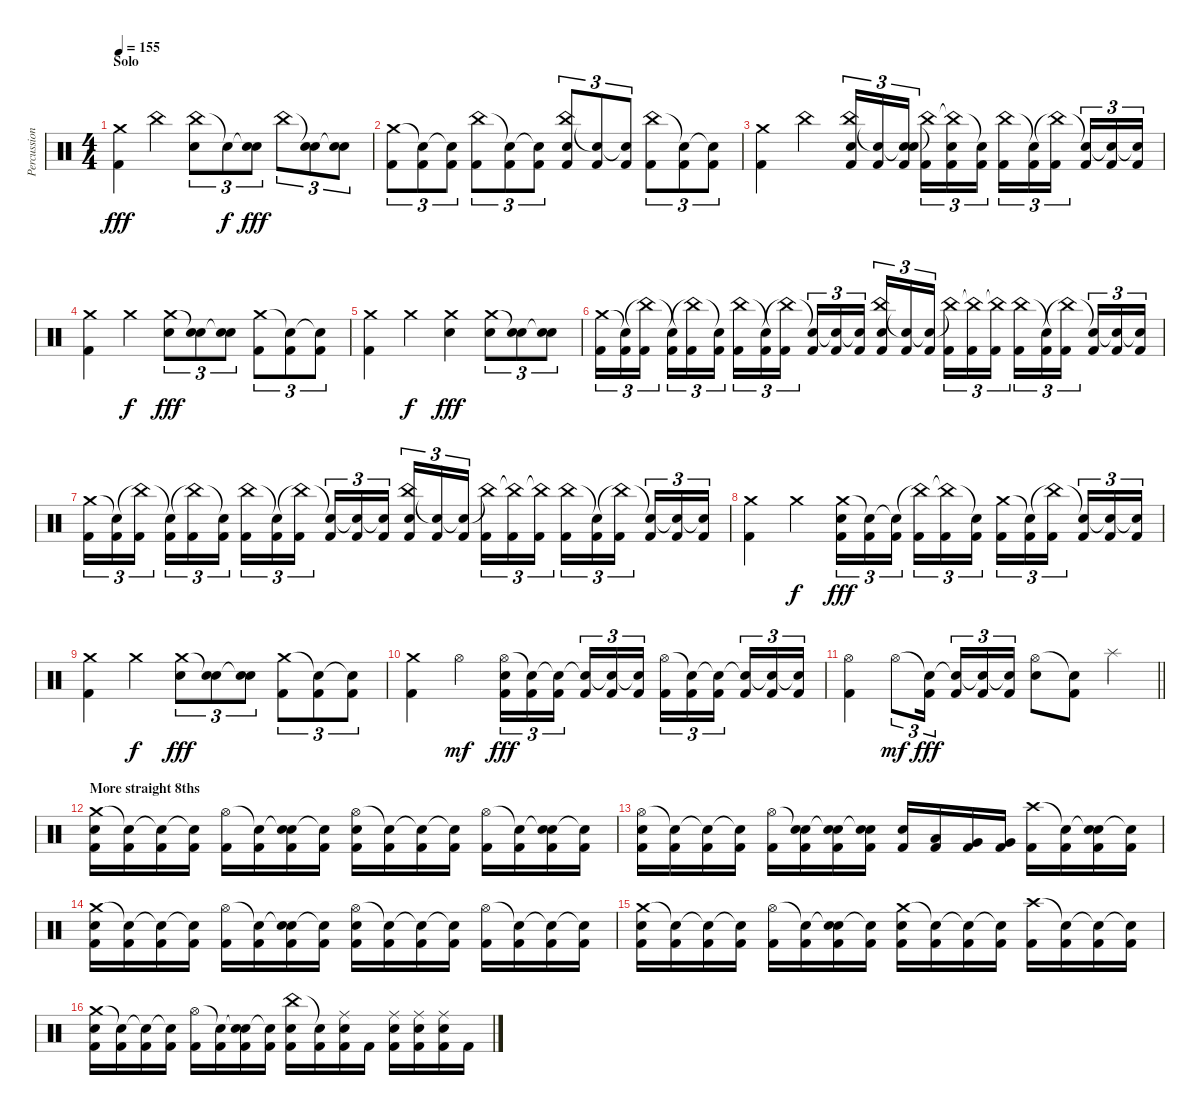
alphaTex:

\track ("Percussion" "Percussion") {instrument percussion}
\staff {score}
\articulation defaults
\ts (4 4)
\section ("" "Solo")
\tempo 155
\clef neutral
\ks c
("Crash medium (hit)" "Kick (hit) 2").4{dy fff} "China (hit)".4 ("China (hit)" "Electric Snare (hit)").8{tu (3 2)} "Snare (hit)"{t}.8{tu (3 2) dy f} ("Snare (hit)"{t} "Electric Snare (hit)").8{tu (3 2) dy fff} "China (hit)".8{tu (3 2)} ("Snare (hit)"{t} "Electric Snare (hit)").8{tu (3 2)} ("Snare (hit)"{t} "Electric Snare (hit)").8{tu (3 2)} |
("Crash medium (hit)" "Kick (hit) 2").8{tu (3 2)} ("Snare (hit)"{t} "Kick (hit) 2").8{tu (3 2)} ("Snare (hit)"{t} "Kick (hit) 2").8{tu (3 2)} ("China (hit)" "Kick (hit) 2").8{tu (3 2)} ("Snare (hit)"{t} "Kick (hit) 2").8{tu (3 2)} ("Snare (hit)"{t} "Kick (hit) 2").8{tu (3 2)} ("China (hit)" "Electric Snare (hit)" "Kick (hit) 2").8{tu (3 2)} ("Snare (hit)"{t} "Kick (hit) 2").8{tu (3 2)} ("Snare (hit)"{t} "Kick (hit) 2").8{tu (3 2)} ("China (hit)" "Kick (hit) 2").8{tu (3 2)} ("Snare (hit)"{t} "Kick (hit) 2").8{tu (3 2)} ("Snare (hit)"{t} "Kick (hit) 2").8{tu (3 2)} |
("Crash medium (hit)" "Kick (hit) 2").4 "China (hit)".4 ("China (hit)" "Electric Snare (hit)" "Kick (hit) 2").16{tu (3 2)} ("Snare (hit)"{t} "Kick (hit) 2").16{tu (3 2)} ("Snare (hit)"{t} "Electric Snare (hit)" "Kick (hit) 2").16{tu (3 2) beam splitsecondary} ("China (hit)"{t} "Kick (hit) 2").16{tu (3 2)} ("China (hit)"{t} "Electric Snare (hit)" "Kick (hit) 2").16{tu (3 2)} ("Snare (hit)"{t} "Kick (hit) 2").16{tu (3 2)} ("China (hit)" "Kick (hit) 2").16{tu (3 2)} ("Snare (hit)"{t} "Kick (hit) 2").16{tu (3 2)} ("China (hit)"{t} "Kick (hit) 2").16{tu (3 2) beam splitsecondary} ("Snare (hit)"{t} "Kick (hit) 2").16{tu (3 2)} ("Snare (hit)"{t} "Kick (hit) 2").16{tu (3 2)} ("Snare (hit)"{t} "Kick (hit) 2").16{tu (3 2)} |
("Crash medium (hit)" "Kick (hit) 2").4 "Crash medium (hit)".4{dy f} ("Crash medium (hit)" "Electric Snare (hit)").8{tu (3 2) dy fff} ("Snare (hit)"{t} "Electric Snare (hit)").8{tu (3 2)} ("Snare (hit)"{t} "Electric Snare (hit)").8{tu (3 2)} ("Crash medium (hit)" "Kick (hit) 2").8{tu (3 2)} ("Snare (hit)"{t} "Kick (hit) 2").8{tu (3 2)} ("Snare (hit)"{t} "Kick (hit) 2").8{tu (3 2)} |
("Crash medium (hit)" "Kick (hit) 2").4 "Crash medium (hit)".4{dy f} ("Crash medium (hit)" "Electric Snare (hit)").4{dy fff} ("Crash medium (hit)" "Electric Snare (hit)").8{tu (3 2)} ("Snare (hit)"{t} "Electric Snare (hit)").8{tu (3 2)} ("Snare (hit)"{t} "Electric Snare (hit)").8{tu (3 2)} |
("Crash medium (hit)" "Kick (hit) 2").16{tu (3 2)} ("Snare (hit)"{t} "Kick (hit) 2").16{tu (3 2)} ("China (hit)"{t} "Kick (hit) 2").16{tu (3 2) beam splitsecondary} ("Snare (hit)"{t} "Kick (hit) 2").16{tu (3 2)} ("China (hit)"{t} "Kick (hit) 2").16{tu (3 2)} ("Snare (hit)"{t} "Kick (hit) 2").16{tu (3 2)} ("China (hit)" "Kick (hit) 2").16{tu (3 2)} ("Snare (hit)"{t} "Kick (hit) 2").16{tu (3 2)} ("China (hit)"{t} "Kick (hit) 2").16{tu (3 2) beam splitsecondary} ("Snare (hit)"{t} "Kick (hit) 2").16{tu (3 2)} ("Snare (hit)"{t} "Kick (hit) 2").16{tu (3 2)} ("Snare (hit)"{t} "Kick (hit) 2").16{tu (3 2)} ("China (hit)" "Electric Snare (hit)" "Kick (hit) 2").16{tu (3 2)} ("Snare (hit)"{t} "Kick (hit) 2").16{tu (3 2)} ("Snare (hit)"{t} "Kick (hit) 2").16{tu (3 2) beam splitsecondary} ("China (hit)"{t} "Kick (hit) 2").16{tu (3 2)} ("China (hit)"{t} "Kick (hit) 2").16{tu (3 2)} ("China (hit)"{t} "Kick (hit) 2").16{tu (3 2)} ("China (hit)" "Kick (hit) 2").16{tu (3 2)} ("Snare (hit)"{t} "Kick (hit) 2").16{tu (3 2)} ("China (hit)"{t} "Kick (hit) 2").16{tu (3 2) beam splitsecondary} ("Snare (hit)"{t} "Kick (hit) 2").16{tu (3 2)} ("Snare (hit)"{t} "Kick (hit) 2").16{tu (3 2)} ("Snare (hit)"{t} "Kick (hit) 2").16{tu (3 2)} |
("Crash medium (hit)" "Kick (hit) 2").16{tu (3 2)} ("Snare (hit)"{t} "Kick (hit) 2").16{tu (3 2)} ("China (hit)"{t} "Kick (hit) 2").16{tu (3 2) beam splitsecondary} ("Snare (hit)"{t} "Kick (hit) 2").16{tu (3 2)} ("China (hit)"{t} "Kick (hit) 2").16{tu (3 2)} ("Snare (hit)"{t} "Kick (hit) 2").16{tu (3 2)} ("China (hit)" "Kick (hit) 2").16{tu (3 2)} ("Snare (hit)"{t} "Kick (hit) 2").16{tu (3 2)} ("China (hit)"{t} "Kick (hit) 2").16{tu (3 2) beam splitsecondary} ("Snare (hit)"{t} "Kick (hit) 2").16{tu (3 2)} ("Snare (hit)"{t} "Kick (hit) 2").16{tu (3 2)} ("Snare (hit)"{t} "Kick (hit) 2").16{tu (3 2)} ("China (hit)" "Electric Snare (hit)" "Kick (hit) 2").16{tu (3 2)} ("Snare (hit)"{t} "Kick (hit) 2").16{tu (3 2)} ("Snare (hit)"{t} "Kick (hit) 2").16{tu (3 2) beam splitsecondary} ("China (hit)"{t} "Kick (hit) 2").16{tu (3 2)} ("China (hit)"{t} "Kick (hit) 2").16{tu (3 2)} ("China (hit)"{t} "Kick (hit) 2").16{tu (3 2)} ("China (hit)" "Kick (hit) 2").16{tu (3 2)} ("Snare (hit)"{t} "Kick (hit) 2").16{tu (3 2)} ("China (hit)"{t} "Kick (hit) 2").16{tu (3 2) beam splitsecondary} ("Snare (hit)"{t} "Kick (hit) 2").16{tu (3 2)} ("Snare (hit)"{t} "Kick (hit) 2").16{tu (3 2)} ("Snare (hit)"{t} "Kick (hit) 2").16{tu (3 2)} |
("Crash medium (hit)" "Kick (hit) 2").4 "Crash medium (hit)".4{dy f} ("Crash medium (hit)" "Electric Snare (hit)" "Kick (hit) 2").16{tu (3 2) dy fff} ("Snare (hit)"{t} "Kick (hit) 2").16{tu (3 2)} ("Snare (hit)"{t} "Kick (hit) 2").16{tu (3 2) beam splitsecondary} ("China (hit)"{t} "Kick (hit) 2").16{tu (3 2)} ("China (hit)"{t} "Kick (hit) 2").16{tu (3 2)} ("Snare (hit)"{t} "Kick (hit) 2").16{tu (3 2)} ("Crash medium (hit)" "Kick (hit) 2").16{tu (3 2)} ("Snare (hit)"{t} "Kick (hit) 2").16{tu (3 2)} ("China (hit)"{t} "Kick (hit) 2").16{tu (3 2) beam splitsecondary} ("Snare (hit)"{t} "Kick (hit) 2").16{tu (3 2)} ("Snare (hit)"{t} "Kick (hit) 2").16{tu (3 2)} ("Snare (hit)"{t} "Kick (hit) 2").16{tu (3 2)} |
("Crash medium (hit)" "Kick (hit) 2").4 "Crash medium (hit)".4{dy f} ("Crash medium (hit)" "Electric Snare (hit)").8{tu (3 2) dy fff} ("Snare (hit)"{t} "Electric Snare (hit)").8{tu (3 2)} ("Snare (hit)"{t} "Electric Snare (hit)").8{tu (3 2)} ("Crash medium (hit)" "Kick (hit) 2").8{tu (3 2)} ("Snare (hit)"{t} "Kick (hit) 2").8{tu (3 2)} ("Snare (hit)"{t} "Kick (hit) 2").8{tu (3 2)} |
("Crash medium (hit)" "Kick (hit) 2").4 "Hi-Hat (open)".4{dy mf} ("Hi-Hat (open)" "Electric Snare (hit)" "Kick (hit) 2").16{tu (3 2) dy fff} ("Snare (hit)"{t} "Kick (hit) 2").16{tu (3 2)} ("Snare (hit)"{t} "Kick (hit) 2").16{tu (3 2) beam splitsecondary} ("Snare (hit)"{t} "Kick (hit) 2").16{tu (3 2)} ("Snare (hit)"{t} "Kick (hit) 2").16{tu (3 2)} ("Snare (hit)"{t} "Kick (hit) 2").16{tu (3 2)} ("Hi-Hat (open)" "Kick (hit) 2").16{tu (3 2)} ("Snare (hit)"{t} "Kick (hit) 2").16{tu (3 2)} ("Snare (hit)"{t} "Kick (hit) 2").16{tu (3 2) beam splitsecondary} ("Snare (hit)"{t} "Kick (hit) 2").16{tu (3 2)} ("Snare (hit)"{t} "Kick (hit) 2").16{tu (3 2)} ("Snare (hit)"{t} "Kick (hit) 2").16{tu (3 2)} |
\barLineRight lightlight
("Hi-Hat (open)" "Kick (hit) 2").4 "Hi-Hat (open)".8{tu (3 2) dy mf} ("Snare (hit)"{t} "Kick (hit) 2").16{tu (3 2) dy fff beam splitsecondary} ("Snare (hit)"{t} "Kick (hit) 2").16{tu (3 2)} ("Snare (hit)"{t} "Kick (hit) 2").16{tu (3 2)} ("Snare (hit)"{t} "Kick (hit) 2").16{tu (3 2)} ("Hi-Hat (open)" "Electric Snare (hit)").8 ("Snare (hit)"{t} "Kick (hit) 2").8 "Splash (hit)".4 |
\section ("" "More straight 8ths")
("Crash medium (hit)" "Electric Snare (hit)" "Kick (hit) 2").16 ("Snare (hit)"{t} "Kick (hit) 2").16 ("Snare (hit)"{t} "Kick (hit) 2").16 ("Snare (hit)"{t} "Kick (hit) 2").16 ("Hi-Hat (open)" "Kick (hit) 2").16 ("Snare (hit)"{t} "Kick (hit) 2").16 ("Snare (hit)"{t} "Electric Snare (hit)" "Kick (hit) 2").16 ("Snare (hit)"{t} "Kick (hit) 2").16 ("Hi-Hat (open)" "Electric Snare (hit)" "Kick (hit) 2").16 ("Snare (hit)"{t} "Kick (hit) 2").16 ("Snare (hit)"{t} "Kick (hit) 2").16 ("Snare (hit)"{t} "Kick (hit) 2").16 ("Hi-Hat (open)" "Kick (hit) 2").16 ("Snare (hit)"{t} "Kick (hit) 2").16 ("Snare (hit)"{t} "Electric Snare (hit)" "Kick (hit) 2").16 ("Snare (hit)"{t} "Kick (hit) 2").16 |
("Hi-Hat (open)" "Electric Snare (hit)" "Kick (hit) 2").16 ("Snare (hit)"{t} "Kick (hit) 2").16 ("Snare (hit)"{t} "Kick (hit) 2").16 ("Snare (hit)"{t} "Kick (hit) 2").16 ("Hi-Hat (open)" "Kick (hit) 2").16 ("Snare (hit)"{t} "Electric Snare (hit)" "Kick (hit) 2").16 ("Snare (hit)"{t} "Electric Snare (hit)" "Kick (hit) 2").16 ("Snare (hit)"{t} "Electric Snare (hit)" "Kick (hit) 2").16 ("Electric Snare (hit)" "Kick (hit) 2").16 ("Low Tom (hit)" "Kick (hit) 2").16 ("Very Low Tom (hit)" "Kick (hit) 2").16 ("Very Low Tom (hit)" "Kick (hit) 2").16 ("Crash high (hit)" "Kick (hit) 2").16 ("Snare (hit)"{t} "Kick (hit) 2").16 ("Snare (hit)"{t} "Electric Snare (hit)" "Kick (hit) 2").16 ("Snare (hit)"{t} "Kick (hit) 2").16 |
("Crash medium (hit)" "Electric Snare (hit)" "Kick (hit) 2").16 ("Snare (hit)"{t} "Kick (hit) 2").16 ("Snare (hit)"{t} "Kick (hit) 2").16 ("Snare (hit)"{t} "Kick (hit) 2").16 ("Hi-Hat (open)" "Kick (hit) 2").16 ("Snare (hit)"{t} "Kick (hit) 2").16 ("Snare (hit)"{t} "Electric Snare (hit)" "Kick (hit) 2").16 ("Snare (hit)"{t} "Kick (hit) 2").16 ("Hi-Hat (open)" "Electric Snare (hit)" "Kick (hit) 2").16 ("Snare (hit)"{t} "Kick (hit) 2").16 ("Snare (hit)"{t} "Kick (hit) 2").16 ("Snare (hit)"{t} "Kick (hit) 2").16 ("Hi-Hat (open)" "Kick (hit) 2").16 ("Snare (hit)"{t} "Kick (hit) 2").16 ("Snare (hit)"{t} "Kick (hit) 2").16 ("Snare (hit)"{t} "Kick (hit) 2").16 |
("Crash medium (hit)" "Electric Snare (hit)" "Kick (hit) 2").16 ("Snare (hit)"{t} "Kick (hit) 2").16 ("Snare (hit)"{t} "Kick (hit) 2").16 ("Snare (hit)"{t} "Kick (hit) 2").16 ("Hi-Hat (open)" "Kick (hit) 2").16 ("Snare (hit)"{t} "Kick (hit) 2").16 ("Snare (hit)"{t} "Electric Snare (hit)" "Kick (hit) 2").16 ("Snare (hit)"{t} "Kick (hit) 2").16 ("Crash medium (hit)" "Electric Snare (hit)" "Kick (hit) 2").16 ("Snare (hit)"{t} "Kick (hit) 2").16 ("Snare (hit)"{t} "Kick (hit) 2").16 ("Snare (hit)"{t} "Kick (hit) 2").16 ("Crash high (hit)" "Kick (hit) 2").16 ("Snare (hit)"{t} "Kick (hit) 2").16 ("Snare (hit)"{t} "Kick (hit) 2").16 ("Snare (hit)"{t} "Kick (hit) 2").16 |
("Crash medium (hit)" "Electric Snare (hit)" "Kick (hit) 2").16 ("Snare (hit)"{t} "Kick (hit) 2").16 ("Snare (hit)"{t} "Kick (hit) 2").16 ("Snare (hit)"{t} "Kick (hit) 2").16 ("Hi-Hat (open)" "Kick (hit) 2").16 ("Snare (hit)"{t} "Kick (hit) 2").16 ("Snare (hit)"{t} "Electric Snare (hit)" "Kick (hit) 2").16 ("Snare (hit)"{t} "Kick (hit) 2").16 ("China (hit)" "Electric Snare (hit)" "Kick (hit) 2").16 ("Snare (hit)"{t} "Kick (hit) 2").16 ("Ride (middle)" "Electric Snare (hit)" "Kick (hit) 2").16 "Kick (hit) 2".16 ("Ride (middle)" "Electric Snare (hit)" "Kick (hit) 2").16 ("Ride (middle)" "Electric Snare (hit)" "Kick (hit) 2").16 ("Ride (middle)" "Electric Snare (hit)" "Kick (hit) 2").16 "Kick (hit) 2".16
